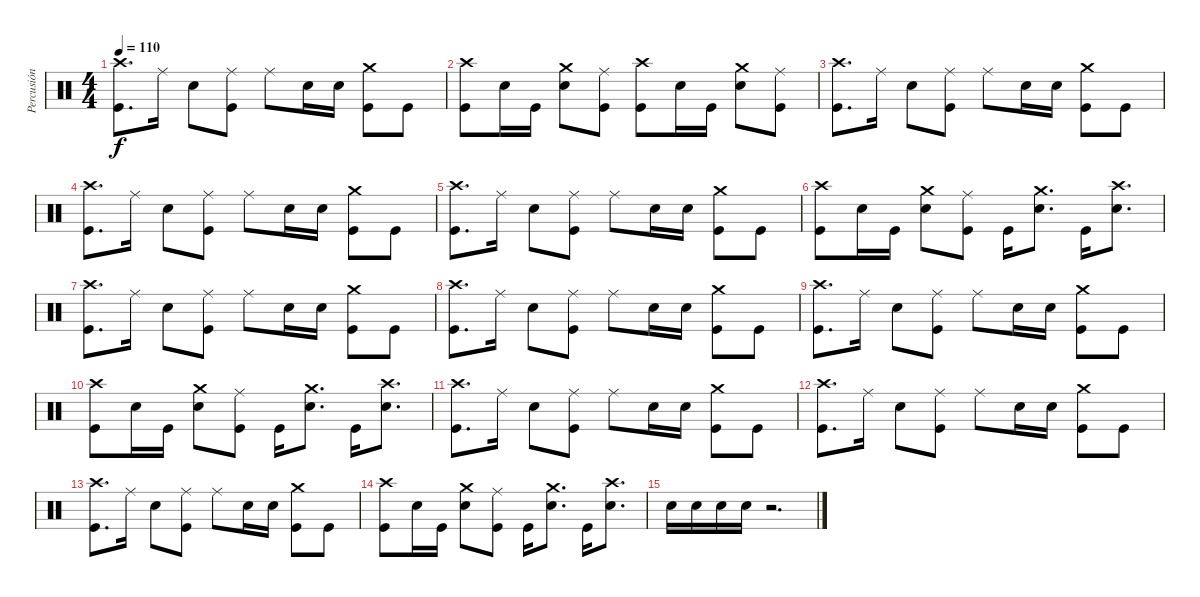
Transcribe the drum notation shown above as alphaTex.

\track ("Percusión" "Percusión") {instrument percussion}
\staff {score}
\articulation defaults
\ts (4 4)
\tempo 110
\clef neutral
\ks c
("Crash high (hit)" "Kick (hit)").8{d dy f} "Ride (middle)".16 "Snare (hit) 2".8 ("Ride (middle)" "Kick (hit)").8 "Ride (middle)".8 "Snare (hit) 2".16 "Snare (hit) 2".16 ("Crash medium (hit)" "Kick (hit)").8 "Kick (hit)".8 |
("Crash high (hit)" "Kick (hit)").8 "Snare (hit) 2".16 "Kick (hit)".16 ("Crash medium (hit)" "Snare (hit) 2").8 ("Ride (middle)" "Kick (hit)").8 ("Crash high (hit)" "Kick (hit)").8 "Snare (hit) 2".16 "Kick (hit)".16 ("Crash medium (hit)" "Snare (hit) 2").8 ("Ride (middle)" "Kick (hit)").8 |
("Crash high (hit)" "Kick (hit)").8{d} "Ride (middle)".16 "Snare (hit) 2".8 ("Ride (middle)" "Kick (hit)").8 "Ride (middle)".8 "Snare (hit) 2".16 "Snare (hit) 2".16 ("Crash medium (hit)" "Kick (hit)").8 "Kick (hit)".8 |
("Crash high (hit)" "Kick (hit)").8{d} "Ride (middle)".16 "Snare (hit) 2".8 ("Ride (middle)" "Kick (hit)").8 "Ride (middle)".8 "Snare (hit) 2".16 "Snare (hit) 2".16 ("Crash medium (hit)" "Kick (hit)").8 "Kick (hit)".8 |
("Crash high (hit)" "Kick (hit)").8{d} "Ride (middle)".16 "Snare (hit) 2".8 ("Ride (middle)" "Kick (hit)").8 "Ride (middle)".8 "Snare (hit) 2".16 "Snare (hit) 2".16 ("Crash medium (hit)" "Kick (hit)").8 "Kick (hit)".8 |
("Crash high (hit)" "Kick (hit)").8 "Snare (hit) 2".16 "Kick (hit)".16 ("Crash medium (hit)" "Snare (hit) 2").8 ("Ride (middle)" "Kick (hit)").8 "Kick (hit)".16 ("Crash medium (hit)" "Snare (hit) 2").8{d} "Kick (hit)".16 ("Crash high (hit)" "Snare (hit) 2").8{d} |
("Crash high (hit)" "Kick (hit)").8{d} "Ride (middle)".16 "Snare (hit) 2".8 ("Ride (middle)" "Kick (hit)").8 "Ride (middle)".8 "Snare (hit) 2".16 "Snare (hit) 2".16 ("Crash medium (hit)" "Kick (hit)").8 "Kick (hit)".8 |
("Crash high (hit)" "Kick (hit)").8{d} "Ride (middle)".16 "Snare (hit) 2".8 ("Ride (middle)" "Kick (hit)").8 "Ride (middle)".8 "Snare (hit) 2".16 "Snare (hit) 2".16 ("Crash medium (hit)" "Kick (hit)").8 "Kick (hit)".8 |
("Crash high (hit)" "Kick (hit)").8{d} "Ride (middle)".16 "Snare (hit) 2".8 ("Ride (middle)" "Kick (hit)").8 "Ride (middle)".8 "Snare (hit) 2".16 "Snare (hit) 2".16 ("Crash medium (hit)" "Kick (hit)").8 "Kick (hit)".8 |
("Crash high (hit)" "Kick (hit)").8 "Snare (hit) 2".16 "Kick (hit)".16 ("Crash medium (hit)" "Snare (hit) 2").8 ("Ride (middle)" "Kick (hit)").8 "Kick (hit)".16 ("Crash medium (hit)" "Snare (hit) 2").8{d} "Kick (hit)".16 ("Crash high (hit)" "Snare (hit) 2").8{d} |
("Crash high (hit)" "Kick (hit)").8{d} "Ride (middle)".16 "Snare (hit) 2".8 ("Ride (middle)" "Kick (hit)").8 "Ride (middle)".8 "Snare (hit) 2".16 "Snare (hit) 2".16 ("Crash medium (hit)" "Kick (hit)").8 "Kick (hit)".8 |
("Crash high (hit)" "Kick (hit)").8{d} "Ride (middle)".16 "Snare (hit) 2".8 ("Ride (middle)" "Kick (hit)").8 "Ride (middle)".8 "Snare (hit) 2".16 "Snare (hit) 2".16 ("Crash medium (hit)" "Kick (hit)").8 "Kick (hit)".8 |
("Crash high (hit)" "Kick (hit)").8{d} "Ride (middle)".16 "Snare (hit) 2".8 ("Ride (middle)" "Kick (hit)").8 "Ride (middle)".8 "Snare (hit) 2".16 "Snare (hit) 2".16 ("Crash medium (hit)" "Kick (hit)").8 "Kick (hit)".8 |
("Crash high (hit)" "Kick (hit)").8 "Snare (hit) 2".16 "Kick (hit)".16 ("Crash medium (hit)" "Snare (hit) 2").8 ("Ride (middle)" "Kick (hit)").8 "Kick (hit)".16 ("Crash medium (hit)" "Snare (hit) 2").8{d} "Kick (hit)".16 ("Crash high (hit)" "Snare (hit) 2").8{d} |
"Snare (hit) 2".16 "Snare (hit) 2".16 "Snare (hit) 2".16 "Snare (hit) 2".16 r.2{d}
